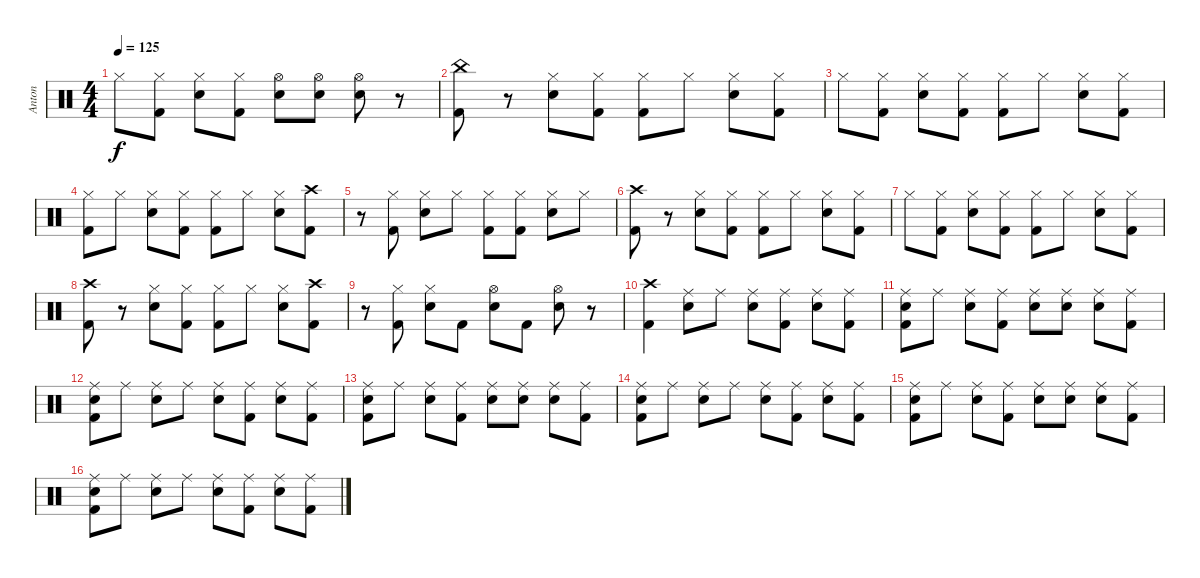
\track ("Anton" "Anton") {instrument percussion}
\staff {score}
\articulation defaults
\ts (4 4)
\tempo 125
\clef neutral
\ks c "Hi-Hat (closed)".8{dy f}
("Kick (hit) 2" "Hi-Hat (closed)").8 ("Electric Snare (hit)" "Hi-Hat (closed)").8 ("Kick (hit) 2" "Hi-Hat (closed)").8 ("Electric Snare (hit)" "Hi-Hat (open)").8 ("Electric Snare (hit)" "Hi-Hat (open)").8 ("Electric Snare (hit)" "Hi-Hat (open)").8 r.8 |
("Kick (hit) 2" "China (hit)").8 r.8 ("Electric Snare (hit)" "Hi-Hat (closed)").8 ("Kick (hit) 2" "Hi-Hat (closed)").8 ("Kick (hit) 2" "Hi-Hat (closed)").8 "Hi-Hat (closed)".8 ("Electric Snare (hit)" "Hi-Hat (closed)").8 ("Kick (hit) 2" "Hi-Hat (closed)").8 |
"Hi-Hat (closed)".8 ("Kick (hit) 2" "Hi-Hat (closed)").8 ("Electric Snare (hit)" "Hi-Hat (closed)").8 ("Kick (hit) 2" "Hi-Hat (closed)").8 ("Kick (hit) 2" "Hi-Hat (closed)").8 "Hi-Hat (closed)".8 ("Electric Snare (hit)" "Hi-Hat (closed)").8 ("Kick (hit) 2" "Hi-Hat (closed)").8 |
("Kick (hit) 2" "Hi-Hat (closed)").8 "Hi-Hat (closed)".8 ("Electric Snare (hit)" "Hi-Hat (closed)").8 ("Kick (hit) 2" "Hi-Hat (closed)").8 ("Kick (hit) 2" "Hi-Hat (closed)").8 "Hi-Hat (closed)".8 ("Electric Snare (hit)" "Hi-Hat (closed)").8 ("Kick (hit) 2" "Crash high (hit)").8 |
r.8 ("Kick (hit) 2" "Hi-Hat (closed)").8 ("Electric Snare (hit)" "Hi-Hat (closed)").8 "Hi-Hat (closed)".8 ("Kick (hit) 2" "Hi-Hat (closed)").8 ("Kick (hit) 2" "Hi-Hat (closed)").8 ("Electric Snare (hit)" "Hi-Hat (closed)").8 "Hi-Hat (closed)".8 |
("Kick (hit) 2" "Crash high (hit)").8 r.8 ("Electric Snare (hit)" "Hi-Hat (closed)").8 ("Kick (hit) 2" "Hi-Hat (closed)").8 ("Kick (hit) 2" "Hi-Hat (closed)").8 "Hi-Hat (closed)".8 ("Electric Snare (hit)" "Hi-Hat (closed)").8 ("Kick (hit) 2" "Hi-Hat (closed)").8 |
"Hi-Hat (closed)".8 ("Kick (hit) 2" "Hi-Hat (closed)").8 ("Electric Snare (hit)" "Hi-Hat (closed)").8 ("Kick (hit) 2" "Hi-Hat (closed)").8 ("Kick (hit) 2" "Hi-Hat (closed)").8 "Hi-Hat (closed)".8 ("Electric Snare (hit)" "Hi-Hat (closed)").8 ("Kick (hit) 2" "Hi-Hat (closed)").8 |
("Kick (hit) 2" "Crash high (hit)").8 r.8 ("Electric Snare (hit)" "Hi-Hat (closed)").8 ("Kick (hit) 2" "Hi-Hat (closed)").8 ("Kick (hit) 2" "Hi-Hat (closed)").8 "Hi-Hat (closed)".8 ("Electric Snare (hit)" "Hi-Hat (closed)").8 ("Kick (hit) 2" "Crash high (hit)").8 |
r.8 ("Kick (hit) 2" "Hi-Hat (closed)").8 ("Electric Snare (hit)" "Hi-Hat (closed)").8 "Kick (hit) 2".8 ("Electric Snare (hit)" "Hi-Hat (open)").8 "Kick (hit) 2".8 ("Electric Snare (hit)" "Hi-Hat (open)").8 r.8 |
("Kick (hit) 2" "Crash high (hit)").4 ("Electric Snare (hit)" "Ride (middle)").8 "Ride (middle)".8 ("Electric Snare (hit)" "Ride (middle)").8 ("Kick (hit) 2" "Ride (middle)").8 ("Electric Snare (hit)" "Ride (middle)").8 ("Kick (hit) 2" "Ride (middle)").8 |
("Kick (hit) 2" "Electric Snare (hit)" "Ride (middle)").8 "Ride (middle)".8 ("Electric Snare (hit)" "Ride (middle)").8 ("Kick (hit) 2" "Ride (middle)").8 ("Electric Snare (hit)" "Ride (middle)").8 ("Electric Snare (hit)" "Ride (middle)").8 ("Electric Snare (hit)" "Ride (middle)").8 ("Kick (hit) 2" "Ride (middle)").8 |
("Kick (hit) 2" "Electric Snare (hit)" "Ride (middle)").8 "Ride (middle)".8 ("Electric Snare (hit)" "Ride (middle)").8 "Ride (middle)".8 ("Electric Snare (hit)" "Ride (middle)").8 ("Kick (hit) 2" "Ride (middle)").8 ("Electric Snare (hit)" "Ride (middle)").8 ("Kick (hit) 2" "Ride (middle)").8 |
("Kick (hit) 2" "Electric Snare (hit)" "Ride (middle)").8 "Ride (middle)".8 ("Electric Snare (hit)" "Ride (middle)").8 ("Kick (hit) 2" "Ride (middle)").8 ("Electric Snare (hit)" "Ride (middle)").8 ("Electric Snare (hit)" "Ride (middle)").8 ("Electric Snare (hit)" "Ride (middle)").8 ("Kick (hit) 2" "Ride (middle)").8 |
("Kick (hit) 2" "Electric Snare (hit)" "Ride (middle)").8 "Ride (middle)".8 ("Electric Snare (hit)" "Ride (middle)").8 "Ride (middle)".8 ("Electric Snare (hit)" "Ride (middle)").8 ("Kick (hit) 2" "Ride (middle)").8 ("Electric Snare (hit)" "Ride (middle)").8 ("Kick (hit) 2" "Ride (middle)").8 |
("Kick (hit) 2" "Electric Snare (hit)" "Ride (middle)").8 "Ride (middle)".8 ("Electric Snare (hit)" "Ride (middle)").8 ("Kick (hit) 2" "Ride (middle)").8 ("Electric Snare (hit)" "Ride (middle)").8 ("Electric Snare (hit)" "Ride (middle)").8 ("Electric Snare (hit)" "Ride (middle)").8 ("Kick (hit) 2" "Ride (middle)").8 |
("Kick (hit) 2" "Electric Snare (hit)" "Ride (middle)").8 "Ride (middle)".8 ("Electric Snare (hit)" "Ride (middle)").8 "Ride (middle)".8 ("Electric Snare (hit)" "Ride (middle)").8 ("Kick (hit) 2" "Ride (middle)").8 ("Electric Snare (hit)" "Ride (middle)").8 ("Kick (hit) 2" "Ride (middle)").8
